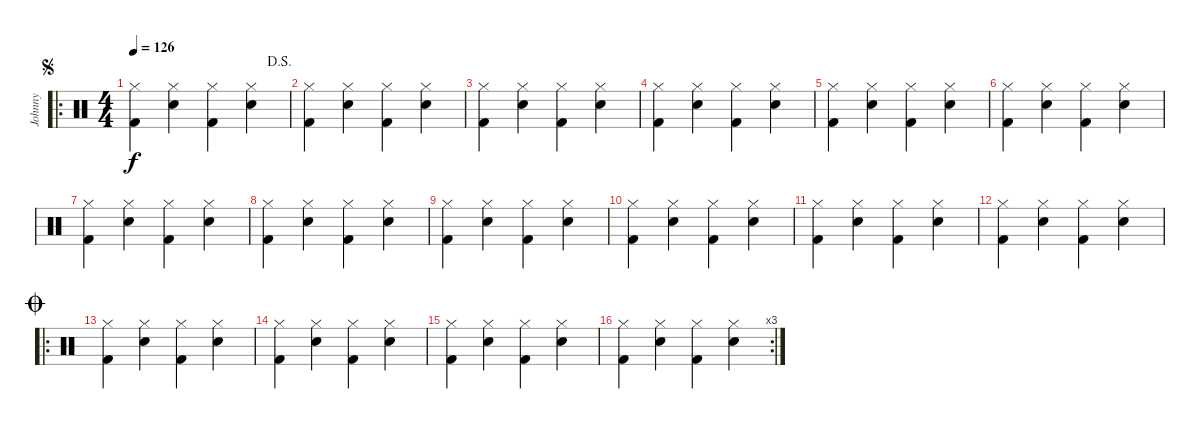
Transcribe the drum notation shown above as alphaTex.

\track ("Johnny" "Johnny") {instrument percussion}
\staff {score}
\articulation defaults
\ro
\ts (4 4)
\jump segno
\jump dalsegno
\tempo 126
\clef neutral
\ks c
("Kick (hit) 2" "Hi-Hat (closed)").4{dy f} ("Electric Snare (hit)" "Hi-Hat (closed)").4 ("Kick (hit) 2" "Hi-Hat (closed)").4 ("Electric Snare (hit)" "Hi-Hat (closed)").4 |
("Kick (hit) 2" "Hi-Hat (closed)").4 ("Electric Snare (hit)" "Hi-Hat (closed)").4 ("Kick (hit) 2" "Hi-Hat (closed)").4 ("Electric Snare (hit)" "Hi-Hat (closed)").4 |
("Kick (hit) 2" "Hi-Hat (closed)").4 ("Electric Snare (hit)" "Hi-Hat (closed)").4 ("Kick (hit) 2" "Hi-Hat (closed)").4 ("Electric Snare (hit)" "Hi-Hat (closed)").4 |
("Kick (hit) 2" "Hi-Hat (closed)").4 ("Electric Snare (hit)" "Hi-Hat (closed)").4 ("Kick (hit) 2" "Hi-Hat (closed)").4 ("Electric Snare (hit)" "Hi-Hat (closed)").4 |
("Kick (hit) 2" "Hi-Hat (closed)").4 ("Electric Snare (hit)" "Hi-Hat (closed)").4 ("Kick (hit) 2" "Hi-Hat (closed)").4 ("Electric Snare (hit)" "Hi-Hat (closed)").4 |
("Kick (hit) 2" "Hi-Hat (closed)").4 ("Electric Snare (hit)" "Hi-Hat (closed)").4 ("Kick (hit) 2" "Hi-Hat (closed)").4 ("Electric Snare (hit)" "Hi-Hat (closed)").4 |
("Kick (hit) 2" "Hi-Hat (closed)").4 ("Electric Snare (hit)" "Hi-Hat (closed)").4 ("Kick (hit) 2" "Hi-Hat (closed)").4 ("Electric Snare (hit)" "Hi-Hat (closed)").4 |
("Kick (hit) 2" "Hi-Hat (closed)").4 ("Electric Snare (hit)" "Hi-Hat (closed)").4 ("Kick (hit) 2" "Hi-Hat (closed)").4 ("Electric Snare (hit)" "Hi-Hat (closed)").4 |
("Kick (hit) 2" "Hi-Hat (closed)").4 ("Electric Snare (hit)" "Hi-Hat (closed)").4 ("Kick (hit) 2" "Hi-Hat (closed)").4 ("Electric Snare (hit)" "Hi-Hat (closed)").4 |
("Kick (hit) 2" "Hi-Hat (closed)").4 ("Electric Snare (hit)" "Hi-Hat (closed)").4 ("Kick (hit) 2" "Hi-Hat (closed)").4 ("Electric Snare (hit)" "Hi-Hat (closed)").4 |
("Kick (hit) 2" "Hi-Hat (closed)").4 ("Electric Snare (hit)" "Hi-Hat (closed)").4 ("Kick (hit) 2" "Hi-Hat (closed)").4 ("Electric Snare (hit)" "Hi-Hat (closed)").4 |
("Kick (hit) 2" "Hi-Hat (closed)").4 ("Electric Snare (hit)" "Hi-Hat (closed)").4 ("Kick (hit) 2" "Hi-Hat (closed)").4 ("Electric Snare (hit)" "Hi-Hat (closed)").4 |
\ro
\jump coda
("Kick (hit) 2" "Hi-Hat (closed)").4 ("Electric Snare (hit)" "Hi-Hat (closed)").4 ("Kick (hit) 2" "Hi-Hat (closed)").4 ("Electric Snare (hit)" "Hi-Hat (closed)").4 |
("Kick (hit) 2" "Hi-Hat (closed)").4 ("Electric Snare (hit)" "Hi-Hat (closed)").4 ("Kick (hit) 2" "Hi-Hat (closed)").4 ("Electric Snare (hit)" "Hi-Hat (closed)").4 |
("Kick (hit) 2" "Hi-Hat (closed)").4 ("Electric Snare (hit)" "Hi-Hat (closed)").4 ("Kick (hit) 2" "Hi-Hat (closed)").4 ("Electric Snare (hit)" "Hi-Hat (closed)").4 |
\rc 3
("Kick (hit) 2" "Hi-Hat (closed)").4 ("Electric Snare (hit)" "Hi-Hat (closed)").4 ("Kick (hit) 2" "Hi-Hat (closed)").4 ("Electric Snare (hit)" "Hi-Hat (closed)").4
